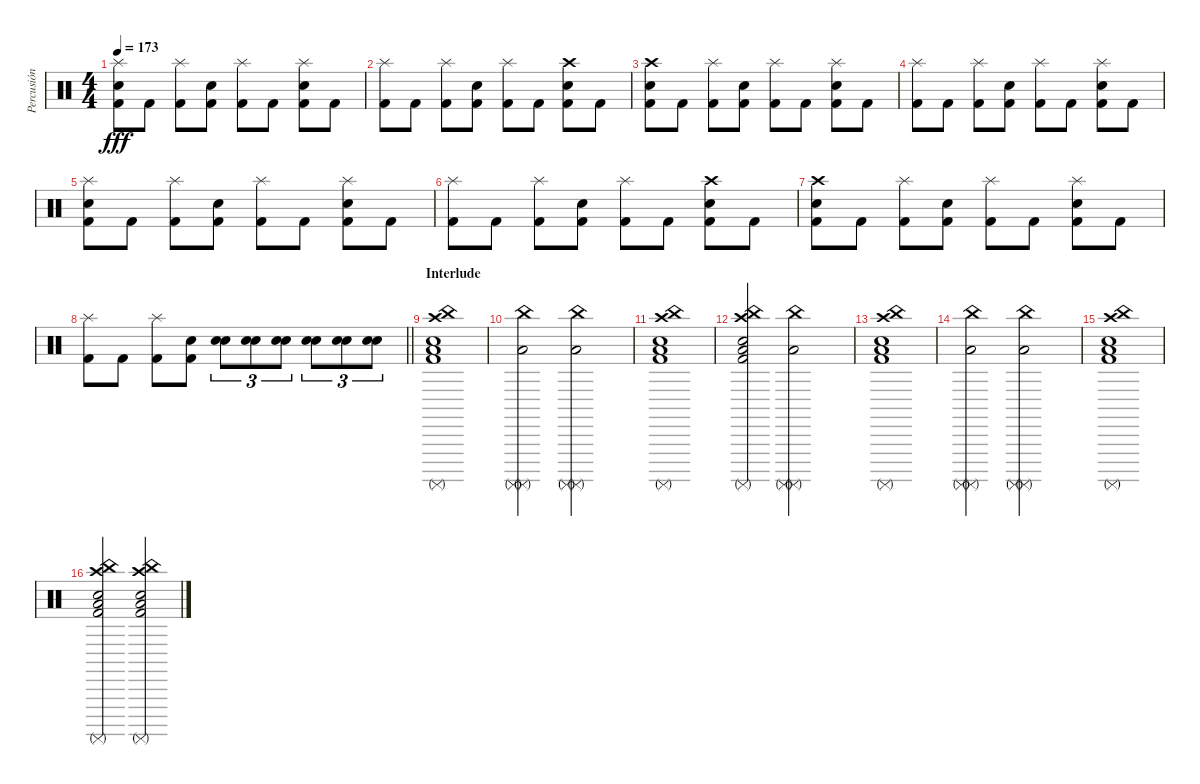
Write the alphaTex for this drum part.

\track ("Percusión" "Percusión") {instrument percussion}
\staff {score}
\articulation defaults
\ts (4 4)
\tempo 173
\clef neutral
\ks c
("Splash (hit)" "Electric Snare (hit)" "Kick (hit) 2").8{dy fff} "Kick (hit) 2".8 ("Splash (hit)" "Kick (hit) 2").8 ("Electric Snare (hit)" "Kick (hit) 2").8 ("Splash (hit)" "Kick (hit) 2").8 "Kick (hit) 2".8 ("Splash (hit)" "Electric Snare (hit)" "Kick (hit) 2").8 "Kick (hit) 2".8 |
("Splash (hit)" "Kick (hit) 2").8 "Kick (hit) 2".8 ("Splash (hit)" "Kick (hit) 2").8 ("Electric Snare (hit)" "Kick (hit) 2").8 ("Splash (hit)" "Kick (hit) 2").8 "Kick (hit) 2".8 ("Crash high (hit)" "Electric Snare (hit)" "Kick (hit) 2").8 "Kick (hit) 2".8 |
("Crash high (hit)" "Electric Snare (hit)" "Kick (hit) 2").8 "Kick (hit) 2".8 ("Splash (hit)" "Kick (hit) 2").8 ("Electric Snare (hit)" "Kick (hit) 2").8 ("Splash (hit)" "Kick (hit) 2").8 "Kick (hit) 2".8 ("Splash (hit)" "Electric Snare (hit)" "Kick (hit) 2").8 "Kick (hit) 2".8 |
("Splash (hit)" "Kick (hit) 2").8 "Kick (hit) 2".8 ("Splash (hit)" "Kick (hit) 2").8 ("Electric Snare (hit)" "Kick (hit) 2").8 ("Splash (hit)" "Kick (hit) 2").8 "Kick (hit) 2".8 ("Splash (hit)" "Electric Snare (hit)" "Kick (hit) 2").8 "Kick (hit) 2".8 |
("Splash (hit)" "Electric Snare (hit)" "Kick (hit) 2").8 "Kick (hit) 2".8 ("Splash (hit)" "Kick (hit) 2").8 ("Electric Snare (hit)" "Kick (hit) 2").8 ("Splash (hit)" "Kick (hit) 2").8 "Kick (hit) 2".8 ("Splash (hit)" "Electric Snare (hit)" "Kick (hit) 2").8 "Kick (hit) 2".8 |
("Splash (hit)" "Kick (hit) 2").8 "Kick (hit) 2".8 ("Splash (hit)" "Kick (hit) 2").8 ("Electric Snare (hit)" "Kick (hit) 2").8 ("Splash (hit)" "Kick (hit) 2").8 "Kick (hit) 2".8 ("Crash high (hit)" "Electric Snare (hit)" "Kick (hit) 2").8 "Kick (hit) 2".8 |
("Crash high (hit)" "Electric Snare (hit)" "Kick (hit) 2").8 "Kick (hit) 2".8 ("Splash (hit)" "Kick (hit) 2").8 ("Electric Snare (hit)" "Kick (hit) 2").8 ("Splash (hit)" "Kick (hit) 2").8 "Kick (hit) 2".8 ("Splash (hit)" "Electric Snare (hit)" "Kick (hit) 2").8 "Kick (hit) 2".8 |
\barLineRight lightlight
("Splash (hit)" "Kick (hit) 2").8 "Kick (hit) 2".8 ("Splash (hit)" "Kick (hit) 2").8 ("Electric Snare (hit)" "Kick (hit) 2").8 ("Snare (hit) 2" "Electric Snare (hit)").8{tu (3 2)} ("Snare (hit) 2" "Electric Snare (hit)").8{tu (3 2)} ("Snare (hit) 2" "Electric Snare (hit)").8{tu (3 2)} ("Snare (hit) 2" "Electric Snare (hit)").8{tu (3 2)} ("Snare (hit) 2" "Electric Snare (hit)").8{tu (3 2)} ("Snare (hit) 2" "Electric Snare (hit)").8{tu (3 2)} |
\section ("" "Interlude")
("Crash high (hit)" "China (hit)" "Surdo (mute)" "Low Floor Tom (hit)" "Snare (hit) 2" "Kick (hit) 2").1 |
("China (hit)" "Surdo (mute)" "Surdo (mute)" "Low Floor Tom (hit)").2 ("China (hit)" "Surdo (mute)" "Surdo (mute)" "Low Floor Tom (hit)").2 |
("Crash high (hit)" "China (hit)" "Surdo (mute)" "Low Floor Tom (hit)" "Snare (hit) 2" "Kick (hit) 2").1 |
("Crash high (hit)" "China (hit)" "Surdo (mute)" "Low Floor Tom (hit)" "Snare (hit) 2" "Kick (hit) 2").2 ("China (hit)" "Surdo (mute)" "Surdo (mute)" "Low Floor Tom (hit)").2 |
("Crash high (hit)" "China (hit)" "Surdo (mute)" "Low Floor Tom (hit)" "Snare (hit) 2" "Kick (hit) 2").1 |
("China (hit)" "Surdo (mute)" "Surdo (mute)" "Low Floor Tom (hit)").2 ("China (hit)" "Surdo (mute)" "Surdo (mute)" "Low Floor Tom (hit)").2 |
("Crash high (hit)" "China (hit)" "Surdo (mute)" "Low Floor Tom (hit)" "Snare (hit) 2" "Kick (hit) 2").1 |
("Crash high (hit)" "China (hit)" "Surdo (mute)" "Low Floor Tom (hit)" "Snare (hit) 2" "Kick (hit) 2").2 ("Crash high (hit)" "China (hit)" "Surdo (mute)" "Low Floor Tom (hit)" "Snare (hit) 2" "Kick (hit) 2").2
